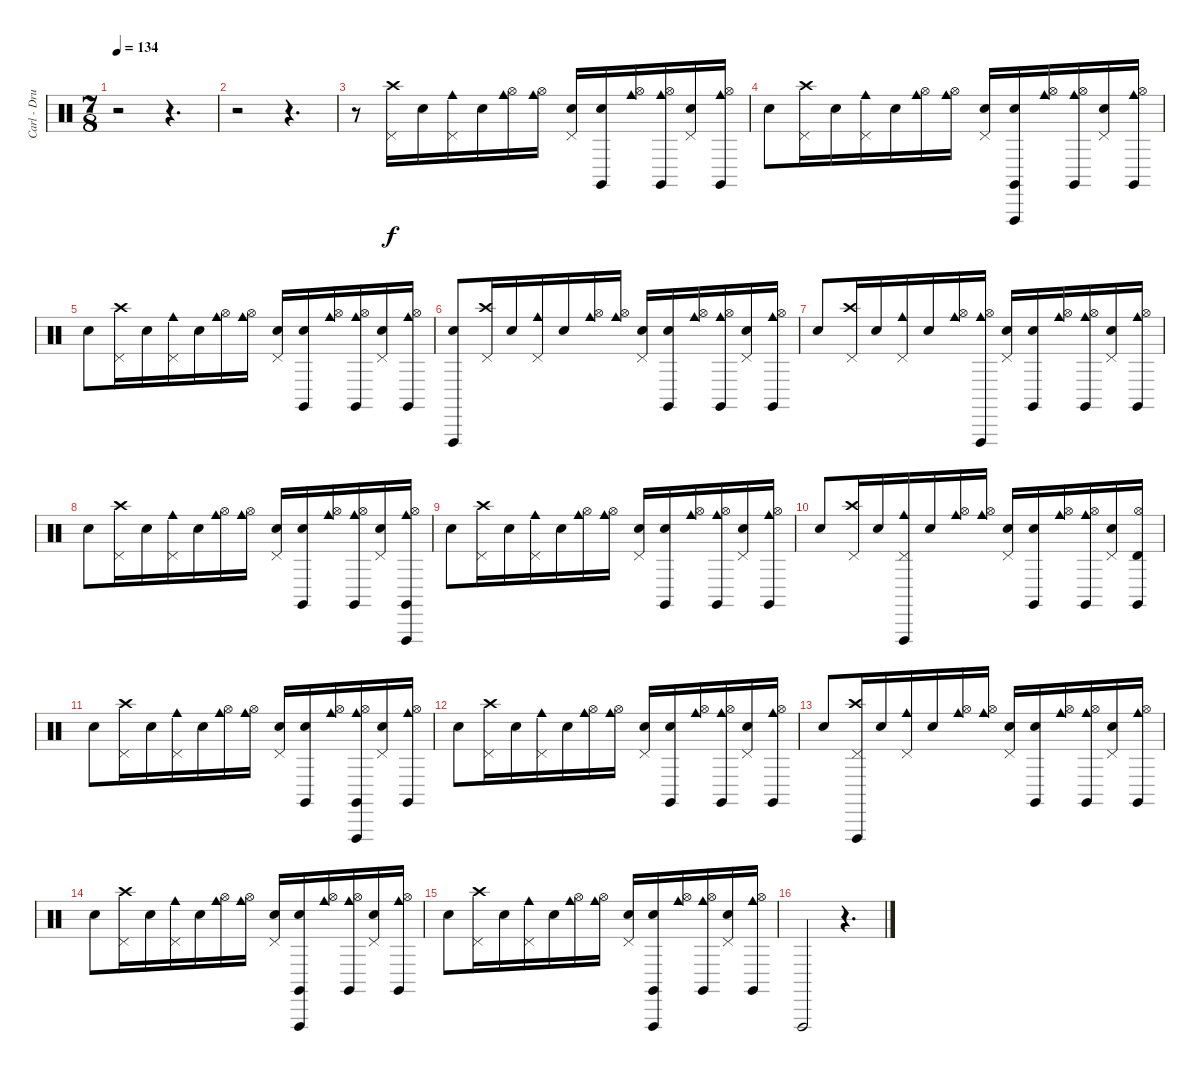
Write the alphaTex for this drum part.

\track ("Carl - Drums" "Carl - Dru") {instrument percussion}
\staff {score}
\articulation defaults
\ts (7 8)
\tempo 134
\clef neutral
\ks c
r.2{dy f} r.4{d} |
r.2 r.4{d} |
r.8 ("Crash high (hit)" "Pedal Hi-Hat (hit)").16 "Electric Snare (hit)".16 ("Pedal Hi-Hat (hit)" "Cowbell medium (hit)").16 "Electric Snare (hit)".16 ("Hi-Hat (open)" "Cowbell medium (hit)").16 ("Hi-Hat (open)" "Cowbell medium (hit)").16 ("Electric Snare (hit)" "Pedal Hi-Hat (hit)").16 ("Claves (hit)" "Electric Snare (hit)").16 ("Hi-Hat (open)" "Cowbell medium (hit)").16 ("Claves (hit)" "Hi-Hat (open)" "Cowbell medium (hit)").16 ("Electric Snare (hit)" "Pedal Hi-Hat (hit)").16 ("Claves (hit)" "Hi-Hat (open)" "Cowbell medium (hit)").16 |
"Electric Snare (hit)".8 ("Crash high (hit)" "Pedal Hi-Hat (hit)").16 "Electric Snare (hit)".16 ("Pedal Hi-Hat (hit)" "Cowbell medium (hit)").16 "Electric Snare (hit)".16 ("Hi-Hat (open)" "Cowbell medium (hit)").16 ("Hi-Hat (open)" "Cowbell medium (hit)").16 ("Electric Snare (hit)" "Pedal Hi-Hat (hit)").16 ("Claves (hit)" "Vibraslap (hit)" "Electric Snare (hit)").16 ("Hi-Hat (open)" "Cowbell medium (hit)").16 ("Claves (hit)" "Hi-Hat (open)" "Cowbell medium (hit)").16 ("Electric Snare (hit)" "Pedal Hi-Hat (hit)").16 ("Claves (hit)" "Hi-Hat (open)" "Cowbell medium (hit)").16 |
"Electric Snare (hit)".8 ("Crash high (hit)" "Pedal Hi-Hat (hit)").16 "Electric Snare (hit)".16 ("Pedal Hi-Hat (hit)" "Cowbell medium (hit)").16 "Electric Snare (hit)".16 ("Hi-Hat (open)" "Cowbell medium (hit)").16 ("Hi-Hat (open)" "Cowbell medium (hit)").16 ("Electric Snare (hit)" "Pedal Hi-Hat (hit)").16 ("Claves (hit)" "Electric Snare (hit)").16 ("Hi-Hat (open)" "Cowbell medium (hit)").16 ("Claves (hit)" "Hi-Hat (open)" "Cowbell medium (hit)").16 ("Electric Snare (hit)" "Pedal Hi-Hat (hit)").16 ("Claves (hit)" "Hi-Hat (open)" "Cowbell medium (hit)").16 |
("Vibraslap (hit)" "Electric Snare (hit)").8 ("Crash high (hit)" "Pedal Hi-Hat (hit)").16 "Electric Snare (hit)".16 ("Pedal Hi-Hat (hit)" "Cowbell medium (hit)").16 "Electric Snare (hit)".16 ("Hi-Hat (open)" "Cowbell medium (hit)").16 ("Hi-Hat (open)" "Cowbell medium (hit)").16 ("Electric Snare (hit)" "Pedal Hi-Hat (hit)").16 ("Claves (hit)" "Electric Snare (hit)").16 ("Hi-Hat (open)" "Cowbell medium (hit)").16 ("Claves (hit)" "Hi-Hat (open)" "Cowbell medium (hit)").16 ("Electric Snare (hit)" "Pedal Hi-Hat (hit)").16 ("Claves (hit)" "Hi-Hat (open)" "Cowbell medium (hit)").16 |
"Electric Snare (hit)".8 ("Crash high (hit)" "Pedal Hi-Hat (hit)").16 "Electric Snare (hit)".16 ("Pedal Hi-Hat (hit)" "Cowbell medium (hit)").16 "Electric Snare (hit)".16 ("Hi-Hat (open)" "Cowbell medium (hit)").16 ("Vibraslap (hit)" "Hi-Hat (open)" "Cowbell medium (hit)").16 ("Electric Snare (hit)" "Pedal Hi-Hat (hit)").16 ("Claves (hit)" "Electric Snare (hit)").16 ("Hi-Hat (open)" "Cowbell medium (hit)").16 ("Claves (hit)" "Hi-Hat (open)" "Cowbell medium (hit)").16 ("Electric Snare (hit)" "Pedal Hi-Hat (hit)").16 ("Claves (hit)" "Hi-Hat (open)" "Cowbell medium (hit)").16 |
"Electric Snare (hit)".8 ("Crash high (hit)" "Pedal Hi-Hat (hit)").16 "Electric Snare (hit)".16 ("Pedal Hi-Hat (hit)" "Cowbell medium (hit)").16 "Electric Snare (hit)".16 ("Hi-Hat (open)" "Cowbell medium (hit)").16 ("Hi-Hat (open)" "Cowbell medium (hit)").16 ("Electric Snare (hit)" "Pedal Hi-Hat (hit)").16 ("Claves (hit)" "Electric Snare (hit)").16 ("Hi-Hat (open)" "Cowbell medium (hit)").16 ("Claves (hit)" "Hi-Hat (open)" "Cowbell medium (hit)").16 ("Electric Snare (hit)" "Pedal Hi-Hat (hit)").16 ("Claves (hit)" "Vibraslap (hit)" "Hi-Hat (open)" "Cowbell medium (hit)").16 |
"Electric Snare (hit)".8 ("Crash high (hit)" "Pedal Hi-Hat (hit)").16 "Electric Snare (hit)".16 ("Pedal Hi-Hat (hit)" "Cowbell medium (hit)").16 "Electric Snare (hit)".16 ("Hi-Hat (open)" "Cowbell medium (hit)").16 ("Hi-Hat (open)" "Cowbell medium (hit)").16 ("Electric Snare (hit)" "Pedal Hi-Hat (hit)").16 ("Claves (hit)" "Electric Snare (hit)").16 ("Hi-Hat (open)" "Cowbell medium (hit)").16 ("Claves (hit)" "Hi-Hat (open)" "Cowbell medium (hit)").16 ("Electric Snare (hit)" "Pedal Hi-Hat (hit)").16 ("Claves (hit)" "Hi-Hat (open)" "Cowbell medium (hit)").16 |
"Electric Snare (hit)".8 ("Crash high (hit)" "Pedal Hi-Hat (hit)").16 "Electric Snare (hit)".16 ("Vibraslap (hit)" "Pedal Hi-Hat (hit)" "Cowbell medium (hit)").16 "Electric Snare (hit)".16 ("Hi-Hat (open)" "Cowbell medium (hit)").16 ("Hi-Hat (open)" "Cowbell medium (hit)").16 ("Electric Snare (hit)" "Pedal Hi-Hat (hit)").16 ("Claves (hit)" "Electric Snare (hit)").16 ("Hi-Hat (open)" "Cowbell medium (hit)").16 ("Claves (hit)" "Hi-Hat (open)" "Cowbell medium (hit)").16 ("Electric Snare (hit)" "Pedal Hi-Hat (hit)").16 ("Claves (hit)" "Hi-Hat (open)" "Timbale high (hit)").16 |
"Electric Snare (hit)".8 ("Crash high (hit)" "Pedal Hi-Hat (hit)").16 "Electric Snare (hit)".16 ("Pedal Hi-Hat (hit)" "Cowbell medium (hit)").16 "Electric Snare (hit)".16 ("Hi-Hat (open)" "Cowbell medium (hit)").16 ("Hi-Hat (open)" "Cowbell medium (hit)").16 ("Electric Snare (hit)" "Pedal Hi-Hat (hit)").16 ("Claves (hit)" "Electric Snare (hit)").16 ("Hi-Hat (open)" "Cowbell medium (hit)").16 ("Claves (hit)" "Vibraslap (hit)" "Hi-Hat (open)" "Cowbell medium (hit)").16 ("Electric Snare (hit)" "Pedal Hi-Hat (hit)").16 ("Claves (hit)" "Hi-Hat (open)" "Cowbell medium (hit)").16 |
"Electric Snare (hit)".8 ("Crash high (hit)" "Pedal Hi-Hat (hit)").16 "Electric Snare (hit)".16 ("Pedal Hi-Hat (hit)" "Cowbell medium (hit)").16 "Electric Snare (hit)".16 ("Hi-Hat (open)" "Cowbell medium (hit)").16 ("Hi-Hat (open)" "Cowbell medium (hit)").16 ("Electric Snare (hit)" "Pedal Hi-Hat (hit)").16 ("Claves (hit)" "Electric Snare (hit)").16 ("Hi-Hat (open)" "Cowbell medium (hit)").16 ("Claves (hit)" "Hi-Hat (open)" "Cowbell medium (hit)").16 ("Electric Snare (hit)" "Pedal Hi-Hat (hit)").16 ("Claves (hit)" "Hi-Hat (open)" "Cowbell medium (hit)").16 |
"Electric Snare (hit)".8 ("Vibraslap (hit)" "Crash high (hit)" "Pedal Hi-Hat (hit)").16 "Electric Snare (hit)".16 ("Pedal Hi-Hat (hit)" "Cowbell medium (hit)").16 "Electric Snare (hit)".16 ("Hi-Hat (open)" "Cowbell medium (hit)").16 ("Hi-Hat (open)" "Cowbell medium (hit)").16 ("Electric Snare (hit)" "Pedal Hi-Hat (hit)").16 ("Claves (hit)" "Electric Snare (hit)").16 ("Hi-Hat (open)" "Cowbell medium (hit)").16 ("Claves (hit)" "Hi-Hat (open)" "Cowbell medium (hit)").16 ("Electric Snare (hit)" "Pedal Hi-Hat (hit)").16 ("Claves (hit)" "Hi-Hat (open)" "Cowbell medium (hit)").16 |
"Electric Snare (hit)".8 ("Crash high (hit)" "Pedal Hi-Hat (hit)").16 "Electric Snare (hit)".16 ("Pedal Hi-Hat (hit)" "Cowbell medium (hit)").16 "Electric Snare (hit)".16 ("Hi-Hat (open)" "Cowbell medium (hit)").16 ("Hi-Hat (open)" "Cowbell medium (hit)").16 ("Electric Snare (hit)" "Pedal Hi-Hat (hit)").16 ("Claves (hit)" "Vibraslap (hit)" "Electric Snare (hit)").16 ("Hi-Hat (open)" "Cowbell medium (hit)").16 ("Claves (hit)" "Hi-Hat (open)" "Cowbell medium (hit)").16 ("Electric Snare (hit)" "Pedal Hi-Hat (hit)").16 ("Claves (hit)" "Hi-Hat (open)" "Cowbell medium (hit)").16 |
"Electric Snare (hit)".8 ("Crash high (hit)" "Pedal Hi-Hat (hit)").16 "Electric Snare (hit)".16 ("Pedal Hi-Hat (hit)" "Cowbell medium (hit)").16 "Electric Snare (hit)".16 ("Hi-Hat (open)" "Cowbell medium (hit)").16 ("Hi-Hat (open)" "Cowbell medium (hit)").16 ("Electric Snare (hit)" "Pedal Hi-Hat (hit)").16 ("Claves (hit)" "Vibraslap (hit)" "Electric Snare (hit)").16 ("Hi-Hat (open)" "Cowbell medium (hit)").16 ("Claves (hit)" "Hi-Hat (open)" "Cowbell medium (hit)").16 ("Electric Snare (hit)" "Pedal Hi-Hat (hit)").16 ("Claves (hit)" "Hi-Hat (open)" "Cowbell medium (hit)").16 |
"Vibraslap (hit)".2 r.4{d}
